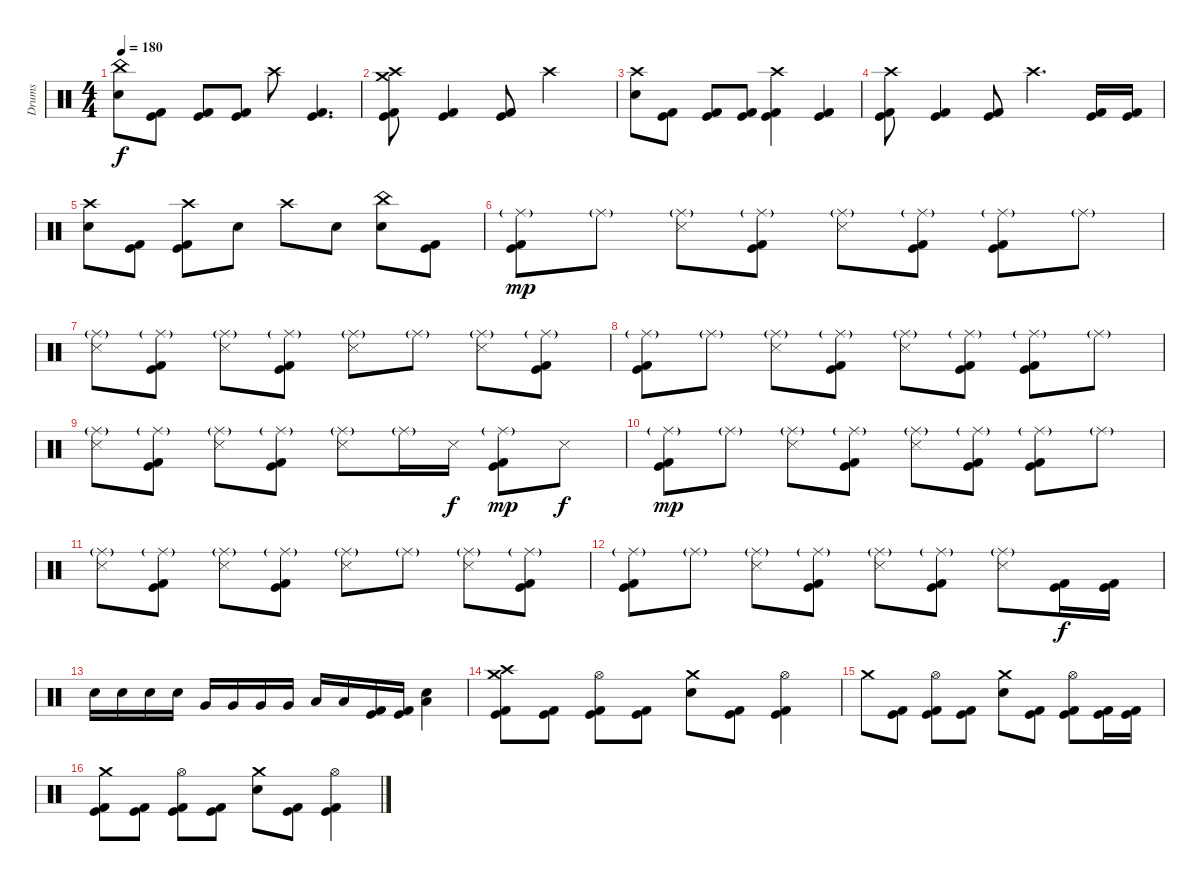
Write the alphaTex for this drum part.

\track ("Drums" "Drums") {instrument percussion}
\staff {score}
\articulation defaults
\ts (4 4)
\tempo 180
\clef neutral
\ks c
("China (hit)" "Electric Snare (hit)").8{dy f} ("Kick (hit)" "Kick (hit) 2").8 ("Kick (hit)" "Kick (hit) 2").8 ("Kick (hit)" "Kick (hit) 2").8 "Crash high (hit)".8 ("Kick (hit)" "Kick (hit) 2").4{d} |
("Crash medium (hit)" "Crash high (hit)" "Kick (hit)" "Kick (hit) 2").8 ("Kick (hit)" "Kick (hit) 2").4 ("Kick (hit)" "Kick (hit) 2").8 "Crash high (hit)".2 |
("Crash high (hit)" "Electric Snare (hit)").8 ("Kick (hit)" "Kick (hit) 2").8 ("Kick (hit)" "Kick (hit) 2").8 ("Kick (hit)" "Kick (hit) 2").8 ("Crash high (hit)" "Kick (hit)" "Kick (hit) 2").4 ("Kick (hit)" "Kick (hit) 2").4 |
("Crash high (hit)" "Kick (hit)" "Kick (hit) 2").8 ("Kick (hit)" "Kick (hit) 2").4 ("Kick (hit)" "Kick (hit) 2").8 "Crash high (hit)".4{d} ("Kick (hit)" "Kick (hit) 2").16 ("Kick (hit)" "Kick (hit) 2").16 |
("Crash high (hit)" "Electric Snare (hit)").8 ("Kick (hit)" "Kick (hit) 2").8 ("Crash high (hit)" "Kick (hit)" "Kick (hit) 2").8 "Electric Snare (hit)".8 "Crash high (hit)".8 "Electric Snare (hit)".8 ("China (hit)" "Electric Snare (hit)").8 ("Kick (hit)" "Kick (hit) 2").8 |
("Ride (middle)"{g} "Kick (hit)" "Kick (hit) 2").8{dy mp} "Ride (middle)"{g}.8 ("Ride (middle)"{g} "Snare (side stick) 3").8 ("Ride (middle)"{g} "Kick (hit)" "Kick (hit) 2").8 ("Ride (middle)"{g} "Snare (side stick) 3").8 ("Ride (middle)"{g} "Kick (hit)" "Kick (hit) 2").8 ("Ride (middle)"{g} "Kick (hit)" "Kick (hit) 2").8 "Ride (middle)"{g}.8 |
("Ride (middle)"{g} "Snare (side stick) 3").8 ("Ride (middle)"{g} "Kick (hit)" "Kick (hit) 2").8 ("Ride (middle)"{g} "Snare (side stick) 3").8 ("Ride (middle)"{g} "Kick (hit)" "Kick (hit) 2").8 ("Ride (middle)"{g} "Snare (side stick) 3").8 "Ride (middle)"{g}.8 ("Ride (middle)"{g} "Snare (side stick) 3").8 ("Ride (middle)"{g} "Kick (hit)" "Kick (hit) 2").8 |
("Ride (middle)"{g} "Kick (hit)" "Kick (hit) 2").8 "Ride (middle)"{g}.8 ("Ride (middle)"{g} "Snare (side stick) 3").8 ("Ride (middle)"{g} "Kick (hit)" "Kick (hit) 2").8 ("Ride (middle)"{g} "Snare (side stick) 3").8 ("Ride (middle)"{g} "Kick (hit)" "Kick (hit) 2").8 ("Ride (middle)"{g} "Kick (hit)" "Kick (hit) 2").8 "Ride (middle)"{g}.8 |
("Ride (middle)"{g} "Snare (side stick) 3").8 ("Ride (middle)"{g} "Kick (hit)" "Kick (hit) 2").8 ("Ride (middle)"{g} "Snare (side stick) 3").8 ("Ride (middle)"{g} "Kick (hit)" "Kick (hit) 2").8 ("Ride (middle)"{g} "Snare (side stick) 3").8 "Ride (middle)"{g}.16 "Snare (side stick) 3".16{dy f} ("Ride (middle)"{g} "Kick (hit)" "Kick (hit) 2").8{dy mp} "Snare (side stick) 3".8{dy f} |
("Ride (middle)"{g} "Kick (hit)" "Kick (hit) 2").8{dy mp} "Ride (middle)"{g}.8 ("Ride (middle)"{g} "Snare (side stick) 3").8 ("Ride (middle)"{g} "Kick (hit)" "Kick (hit) 2").8 ("Ride (middle)"{g} "Snare (side stick) 3").8 ("Ride (middle)"{g} "Kick (hit)" "Kick (hit) 2").8 ("Ride (middle)"{g} "Kick (hit)" "Kick (hit) 2").8 "Ride (middle)"{g}.8 |
("Ride (middle)"{g} "Snare (side stick) 3").8 ("Ride (middle)"{g} "Kick (hit)" "Kick (hit) 2").8 ("Ride (middle)"{g} "Snare (side stick) 3").8 ("Ride (middle)"{g} "Kick (hit)" "Kick (hit) 2").8 ("Ride (middle)"{g} "Snare (side stick) 3").8 "Ride (middle)"{g}.8 ("Ride (middle)"{g} "Snare (side stick) 3").8 ("Ride (middle)"{g} "Kick (hit)" "Kick (hit) 2").8 |
("Ride (middle)"{g} "Kick (hit)" "Kick (hit) 2").8 "Ride (middle)"{g}.8 ("Ride (middle)"{g} "Snare (side stick) 3").8 ("Ride (middle)"{g} "Kick (hit)" "Kick (hit) 2").8 ("Ride (middle)"{g} "Snare (side stick) 3").8 ("Ride (middle)"{g} "Kick (hit)" "Kick (hit) 2").8 ("Ride (middle)"{g} "Snare (side stick) 3").8 ("Kick (hit) 2" "Kick (hit)").16{dy f} ("Kick (hit)" "Kick (hit) 2").16 |
"Electric Snare (hit)".16 "Electric Snare (hit)".16 "Electric Snare (hit)".16 "Electric Snare (hit)".16 "Very Low Tom (hit)".16 "Very Low Tom (hit)".16 "Very Low Tom (hit)".16 "Very Low Tom (hit)".16 "Low Floor Tom (hit)".16 "Low Floor Tom (hit)".16 ("Kick (hit)" "Kick (hit) 2").16 ("Kick (hit)" "Kick (hit) 2").16 ("Electric Snare (hit)" "Low Floor Tom (hit)").4 |
("Crash high (hit)" "Crash medium (hit)" "Kick (hit)" "Kick (hit) 2").8 ("Kick (hit)" "Kick (hit) 2").8 ("Hi-Hat (open)" "Kick (hit)" "Kick (hit) 2").8 ("Kick (hit)" "Kick (hit) 2").8 ("Crash medium (hit)" "Electric Snare (hit)").8 ("Kick (hit)" "Kick (hit) 2").8 ("Hi-Hat (open)" "Kick (hit)" "Kick (hit) 2").4 |
"Crash medium (hit)".8 ("Kick (hit)" "Kick (hit) 2").8 ("Hi-Hat (open)" "Kick (hit)" "Kick (hit) 2").8 ("Kick (hit)" "Kick (hit) 2").8 ("Crash medium (hit)" "Electric Snare (hit)").8 ("Kick (hit)" "Kick (hit) 2").8 ("Hi-Hat (open)" "Kick (hit)" "Kick (hit) 2").8 ("Kick (hit)" "Kick (hit) 2").16 ("Kick (hit)" "Kick (hit) 2").16 |
("Crash medium (hit)" "Kick (hit)" "Kick (hit) 2").8 ("Kick (hit)" "Kick (hit) 2").8 ("Hi-Hat (open)" "Kick (hit)" "Kick (hit) 2").8 ("Kick (hit)" "Kick (hit) 2").8 ("Crash medium (hit)" "Electric Snare (hit)").8 ("Kick (hit)" "Kick (hit) 2").8 ("Hi-Hat (open)" "Kick (hit)" "Kick (hit) 2").4
